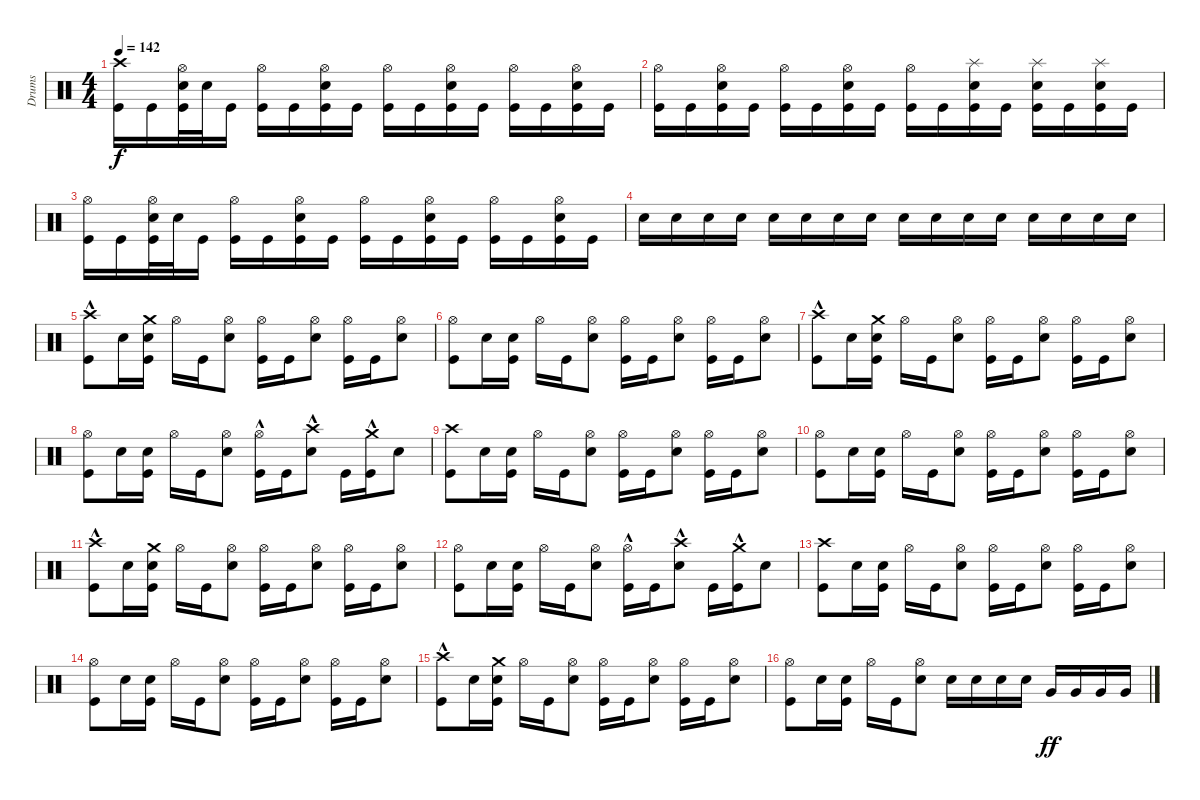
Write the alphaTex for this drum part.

\track ("Drums" "Drums") {instrument percussion}
\staff {score}
\articulation defaults
\ts (4 4)
\tempo 142
\clef neutral
\ks c
("Crash high (hit)" "Kick (hit)").16{dy f} "Kick (hit)".16 ("Hi-Hat (open)" "Snare (hit) 2" "Kick (hit)").32 "Snare (hit) 2".32 "Kick (hit)".16 ("Hi-Hat (open)" "Kick (hit)").16 "Kick (hit)".16 ("Hi-Hat (open)" "Snare (hit) 2" "Kick (hit)").16 "Kick (hit)".16 ("Hi-Hat (open)" "Kick (hit)").16 "Kick (hit)".16 ("Hi-Hat (open)" "Snare (hit) 2" "Kick (hit)").16 "Kick (hit)".16 ("Hi-Hat (open)" "Kick (hit)").16 "Kick (hit)".16 ("Hi-Hat (open)" "Snare (hit) 2" "Kick (hit)").16 "Kick (hit)".16 |
("Hi-Hat (open)" "Kick (hit)").16 "Kick (hit)".16 ("Hi-Hat (open)" "Snare (hit) 2" "Kick (hit)").16 "Kick (hit)".16 ("Hi-Hat (open)" "Kick (hit)").16 "Kick (hit)".16 ("Hi-Hat (open)" "Snare (hit) 2" "Kick (hit)").16 "Kick (hit)".16 ("Hi-Hat (open)" "Kick (hit)").16 "Kick (hit)".16 ("Splash (hit)" "Snare (hit) 2" "Kick (hit)").16 "Kick (hit)".16 ("Splash (hit)" "Snare (hit) 2" "Kick (hit)").16 "Kick (hit)".16 ("Splash (hit)" "Snare (hit) 2" "Kick (hit)").16 "Kick (hit)".16 |
("Hi-Hat (open)" "Kick (hit)").16 "Kick (hit)".16 ("Hi-Hat (open)" "Snare (hit) 2" "Kick (hit)").32 "Snare (hit) 2".32 "Kick (hit)".16 ("Hi-Hat (open)" "Kick (hit)").16 "Kick (hit)".16 ("Hi-Hat (open)" "Snare (hit) 2" "Kick (hit)").16 "Kick (hit)".16 ("Hi-Hat (open)" "Kick (hit)").16 "Kick (hit)".16 ("Hi-Hat (open)" "Snare (hit) 2" "Kick (hit)").16 "Kick (hit)".16 ("Hi-Hat (open)" "Kick (hit)").16 "Kick (hit)".16 ("Hi-Hat (open)" "Snare (hit) 2" "Kick (hit)").16 "Kick (hit)".16 |
"Snare (hit) 2".16 "Snare (hit) 2".16 "Snare (hit) 2".16 "Snare (hit) 2".16 "Snare (hit) 2".16 "Snare (hit) 2".16 "Snare (hit) 2".16 "Snare (hit) 2".16 "Snare (hit) 2".16 "Snare (hit) 2".16 "Snare (hit) 2".16 "Snare (hit) 2".16 "Snare (hit) 2".16 "Snare (hit) 2".16 "Snare (hit) 2".16 "Snare (hit) 2".16 |
("Crash high (hit)"{hac} "Kick (hit)").8 "Snare (hit) 2".16 ("Crash medium (hit)" "Snare (hit) 2" "Kick (hit)").16 "Hi-Hat (open)".16 "Kick (hit)".16 ("Hi-Hat (open)" "Snare (hit) 2").8 ("Hi-Hat (open)" "Kick (hit)").16 "Kick (hit)".16 ("Hi-Hat (open)" "Snare (hit) 2").8 ("Hi-Hat (open)" "Kick (hit)").16 "Kick (hit)".16 ("Hi-Hat (open)" "Snare (hit) 2").8 |
("Hi-Hat (open)" "Kick (hit)").8 "Snare (hit) 2".16 ("Snare (hit) 2" "Kick (hit)").16 "Hi-Hat (open)".16 "Kick (hit)".16 ("Hi-Hat (open)" "Snare (hit) 2").8 ("Hi-Hat (open)" "Kick (hit)").16 "Kick (hit)".16 ("Hi-Hat (open)" "Snare (hit) 2").8 ("Hi-Hat (open)" "Kick (hit)").16 "Kick (hit)".16 ("Hi-Hat (open)" "Snare (hit) 2").8 |
("Crash high (hit)"{hac} "Kick (hit)").8 "Snare (hit) 2".16 ("Crash medium (hit)" "Snare (hit) 2" "Kick (hit)").16 "Hi-Hat (open)".16 "Kick (hit)".16 ("Hi-Hat (open)" "Snare (hit) 2").8 ("Hi-Hat (open)" "Kick (hit)").16 "Kick (hit)".16 ("Hi-Hat (open)" "Snare (hit) 2").8 ("Hi-Hat (open)" "Kick (hit)").16 "Kick (hit)".16 ("Hi-Hat (open)" "Snare (hit) 2").8 |
("Hi-Hat (open)" "Kick (hit)").8 "Snare (hit) 2".16 ("Snare (hit) 2" "Kick (hit)").16 "Hi-Hat (open)".16 "Kick (hit)".16 ("Hi-Hat (open)" "Snare (hit) 2").8 ("Hi-Hat (open)"{hac} "Kick (hit)").16 "Kick (hit)".16 ("Crash high (hit)"{hac} "Snare (hit) 2").8 "Kick (hit)".16 ("Crash medium (hit)"{hac} "Kick (hit)").16 "Snare (hit) 2".8 |
("Crash high (hit)" "Kick (hit)").8 "Snare (hit) 2".16 ("Snare (hit) 2" "Kick (hit)").16 "Hi-Hat (open)".16 "Kick (hit)".16 ("Hi-Hat (open)" "Snare (hit) 2").8 ("Hi-Hat (open)" "Kick (hit)").16 "Kick (hit)".16 ("Hi-Hat (open)" "Snare (hit) 2").8 ("Hi-Hat (open)" "Kick (hit)").16 "Kick (hit)".16 ("Hi-Hat (open)" "Snare (hit) 2").8 |
("Hi-Hat (open)" "Kick (hit)").8 "Snare (hit) 2".16 ("Snare (hit) 2" "Kick (hit)").16 "Hi-Hat (open)".16 "Kick (hit)".16 ("Hi-Hat (open)" "Snare (hit) 2").8 ("Hi-Hat (open)" "Kick (hit)").16 "Kick (hit)".16 ("Hi-Hat (open)" "Snare (hit) 2").8 ("Hi-Hat (open)" "Kick (hit)").16 "Kick (hit)".16 ("Hi-Hat (open)" "Snare (hit) 2").8 |
("Crash high (hit)"{hac} "Kick (hit)").8 "Snare (hit) 2".16 ("Crash medium (hit)" "Snare (hit) 2" "Kick (hit)").16 "Hi-Hat (open)".16 "Kick (hit)".16 ("Hi-Hat (open)" "Snare (hit) 2").8 ("Hi-Hat (open)" "Kick (hit)").16 "Kick (hit)".16 ("Hi-Hat (open)" "Snare (hit) 2").8 ("Hi-Hat (open)" "Kick (hit)").16 "Kick (hit)".16 ("Hi-Hat (open)" "Snare (hit) 2").8 |
("Hi-Hat (open)" "Kick (hit)").8 "Snare (hit) 2".16 ("Snare (hit) 2" "Kick (hit)").16 "Hi-Hat (open)".16 "Kick (hit)".16 ("Hi-Hat (open)" "Snare (hit) 2").8 ("Hi-Hat (open)"{hac} "Kick (hit)").16 "Kick (hit)".16 ("Crash high (hit)"{hac} "Snare (hit) 2").8 "Kick (hit)".16 ("Crash medium (hit)"{hac} "Kick (hit)").16 "Snare (hit) 2".8 |
("Crash high (hit)" "Kick (hit)").8 "Snare (hit) 2".16 ("Snare (hit) 2" "Kick (hit)").16 "Hi-Hat (open)".16 "Kick (hit)".16 ("Hi-Hat (open)" "Snare (hit) 2").8 ("Hi-Hat (open)" "Kick (hit)").16 "Kick (hit)".16 ("Hi-Hat (open)" "Snare (hit) 2").8 ("Hi-Hat (open)" "Kick (hit)").16 "Kick (hit)".16 ("Hi-Hat (open)" "Snare (hit) 2").8 |
("Hi-Hat (open)" "Kick (hit)").8 "Snare (hit) 2".16 ("Snare (hit) 2" "Kick (hit)").16 "Hi-Hat (open)".16 "Kick (hit)".16 ("Hi-Hat (open)" "Snare (hit) 2").8 ("Hi-Hat (open)" "Kick (hit)").16 "Kick (hit)".16 ("Hi-Hat (open)" "Snare (hit) 2").8 ("Hi-Hat (open)" "Kick (hit)").16 "Kick (hit)".16 ("Hi-Hat (open)" "Snare (hit) 2").8 |
("Crash high (hit)"{hac} "Kick (hit)").8 "Snare (hit) 2".16 ("Crash medium (hit)" "Snare (hit) 2" "Kick (hit)").16 "Hi-Hat (open)".16 "Kick (hit)".16 ("Hi-Hat (open)" "Snare (hit) 2").8 ("Hi-Hat (open)" "Kick (hit)").16 "Kick (hit)".16 ("Hi-Hat (open)" "Snare (hit) 2").8 ("Hi-Hat (open)" "Kick (hit)").16 "Kick (hit)".16 ("Hi-Hat (open)" "Snare (hit) 2").8 |
("Hi-Hat (open)" "Kick (hit)").8 "Snare (hit) 2".16 ("Snare (hit) 2" "Kick (hit)").16 "Hi-Hat (open)".16 "Kick (hit)".16 ("Hi-Hat (open)" "Snare (hit) 2").8 "Snare (hit) 2".16 "Snare (hit) 2".16 "Snare (hit) 2".16 "Snare (hit) 2".16 "Very Low Tom (hit)".16{dy ff} "Very Low Tom (hit)".16 "Very Low Tom (hit)".16 "Very Low Tom (hit)".16
